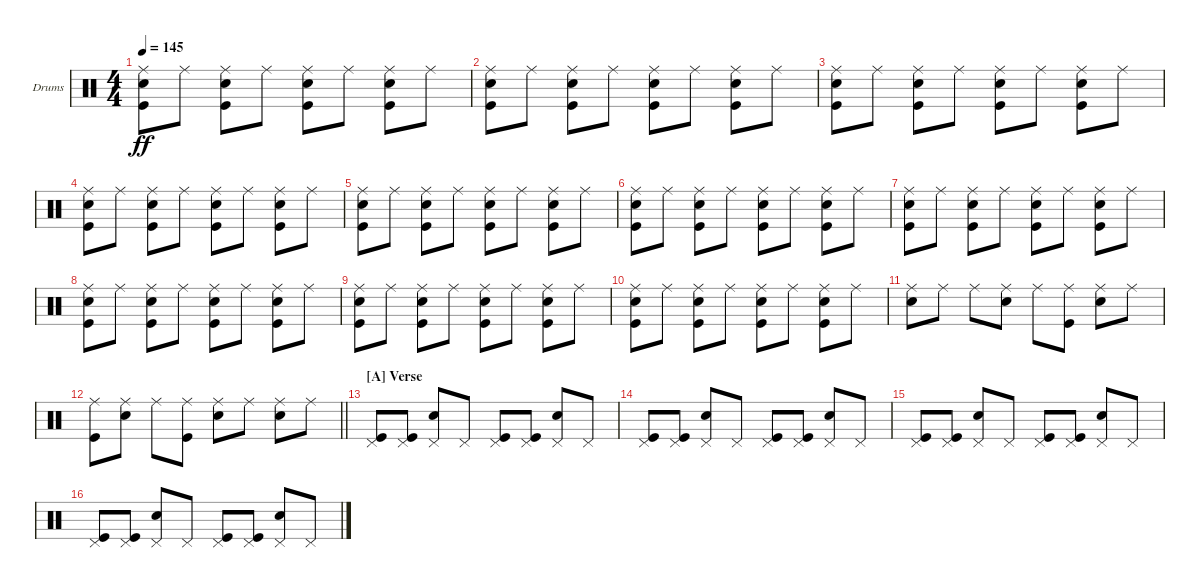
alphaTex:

\bracketExtendMode groupsimilarinstruments
\firstSystemTrackNameOrientation horizontal
\otherSystemsTrackNameOrientation horizontal
\track ("Fabrizio Moretti" "Drums") {instrument percussion}
\staff {score}
\articulation defaults
\ts (4 4)
\tempo 145
\clef neutral
\ks c
("Ride (middle)" "Snare (hit) 2" "Kick (hit)").8{dy ff} "Ride (middle)".8 ("Ride (middle)" "Snare (hit) 2" "Kick (hit)").8 "Ride (middle)".8 ("Ride (middle)" "Snare (hit) 2" "Kick (hit)").8 "Ride (middle)".8 ("Ride (middle)" "Snare (hit) 2" "Kick (hit)").8 "Ride (middle)".8 |
("Ride (middle)" "Snare (hit) 2" "Kick (hit)").8 "Ride (middle)".8 ("Ride (middle)" "Snare (hit) 2" "Kick (hit)").8 "Ride (middle)".8 ("Ride (middle)" "Snare (hit) 2" "Kick (hit)").8 "Ride (middle)".8 ("Ride (middle)" "Snare (hit) 2" "Kick (hit)").8 "Ride (middle)".8 |
("Ride (middle)" "Snare (hit) 2" "Kick (hit)").8 "Ride (middle)".8 ("Ride (middle)" "Snare (hit) 2" "Kick (hit)").8 "Ride (middle)".8 ("Ride (middle)" "Snare (hit) 2" "Kick (hit)").8 "Ride (middle)".8 ("Ride (middle)" "Snare (hit) 2" "Kick (hit)").8 "Ride (middle)".8 |
("Ride (middle)" "Snare (hit) 2" "Kick (hit)").8 "Ride (middle)".8 ("Ride (middle)" "Snare (hit) 2" "Kick (hit)").8 "Ride (middle)".8 ("Ride (middle)" "Snare (hit) 2" "Kick (hit)").8 "Ride (middle)".8 ("Ride (middle)" "Snare (hit) 2" "Kick (hit)").8 "Ride (middle)".8 |
("Ride (middle)" "Snare (hit) 2" "Kick (hit)").8 "Ride (middle)".8 ("Ride (middle)" "Snare (hit) 2" "Kick (hit)").8 "Ride (middle)".8 ("Ride (middle)" "Snare (hit) 2" "Kick (hit)").8 "Ride (middle)".8 ("Ride (middle)" "Snare (hit) 2" "Kick (hit)").8 "Ride (middle)".8 |
("Ride (middle)" "Snare (hit) 2" "Kick (hit)").8 "Ride (middle)".8 ("Ride (middle)" "Snare (hit) 2" "Kick (hit)").8 "Ride (middle)".8 ("Ride (middle)" "Snare (hit) 2" "Kick (hit)").8 "Ride (middle)".8 ("Ride (middle)" "Snare (hit) 2" "Kick (hit)").8 "Ride (middle)".8 |
("Ride (middle)" "Snare (hit) 2" "Kick (hit)").8 "Ride (middle)".8 ("Ride (middle)" "Snare (hit) 2" "Kick (hit)").8 "Ride (middle)".8 ("Ride (middle)" "Snare (hit) 2" "Kick (hit)").8 "Ride (middle)".8 ("Ride (middle)" "Snare (hit) 2" "Kick (hit)").8 "Ride (middle)".8 |
("Ride (middle)" "Snare (hit) 2" "Kick (hit)").8 "Ride (middle)".8 ("Ride (middle)" "Snare (hit) 2" "Kick (hit)").8 "Ride (middle)".8 ("Ride (middle)" "Snare (hit) 2" "Kick (hit)").8 "Ride (middle)".8 ("Ride (middle)" "Snare (hit) 2" "Kick (hit)").8 "Ride (middle)".8 |
("Ride (middle)" "Snare (hit) 2" "Kick (hit)").8 "Ride (middle)".8 ("Ride (middle)" "Snare (hit) 2" "Kick (hit)").8 "Ride (middle)".8 ("Ride (middle)" "Snare (hit) 2" "Kick (hit)").8 "Ride (middle)".8 ("Ride (middle)" "Snare (hit) 2" "Kick (hit)").8 "Ride (middle)".8 |
("Ride (middle)" "Snare (hit) 2" "Kick (hit)").8 "Ride (middle)".8 ("Ride (middle)" "Snare (hit) 2" "Kick (hit)").8 "Ride (middle)".8 ("Ride (middle)" "Snare (hit) 2" "Kick (hit)").8 "Ride (middle)".8 ("Ride (middle)" "Snare (hit) 2" "Kick (hit)").8 "Ride (middle)".8 |
("Ride (middle)" "Snare (hit) 2").8 "Ride (middle)".8 "Ride (middle)".8 ("Ride (middle)" "Snare (hit) 2").8 "Ride (middle)".8 ("Ride (middle)" "Kick (hit)").8 ("Ride (middle)" "Snare (hit) 2").8 "Ride (middle)".8 |
\barLineRight lightlight
("Ride (middle)" "Kick (hit)").8 ("Ride (middle)" "Snare (hit) 2").8 "Ride (middle)".8 ("Ride (middle)" "Kick (hit)").8 ("Ride (middle)" "Snare (hit) 2").8 "Ride (middle)".8 ("Ride (middle)" "Snare (hit) 2").8 "Ride (middle)".8 |
\section ("A" "Verse")
("Pedal Hi-Hat (hit)" "Kick (hit)").8 ("Pedal Hi-Hat (hit)" "Kick (hit)").8 ("Pedal Hi-Hat (hit)" "Snare (hit) 2").8 "Pedal Hi-Hat (hit)".8 ("Pedal Hi-Hat (hit)" "Kick (hit)").8 ("Pedal Hi-Hat (hit)" "Kick (hit)").8 ("Pedal Hi-Hat (hit)" "Snare (hit) 2").8 "Pedal Hi-Hat (hit)".8 |
("Pedal Hi-Hat (hit)" "Kick (hit)").8 ("Pedal Hi-Hat (hit)" "Kick (hit)").8 ("Pedal Hi-Hat (hit)" "Snare (hit) 2").8 "Pedal Hi-Hat (hit)".8 ("Pedal Hi-Hat (hit)" "Kick (hit)").8 ("Pedal Hi-Hat (hit)" "Kick (hit)").8 ("Pedal Hi-Hat (hit)" "Snare (hit) 2").8 "Pedal Hi-Hat (hit)".8 |
("Pedal Hi-Hat (hit)" "Kick (hit)").8 ("Pedal Hi-Hat (hit)" "Kick (hit)").8 ("Pedal Hi-Hat (hit)" "Snare (hit) 2").8 "Pedal Hi-Hat (hit)".8 ("Pedal Hi-Hat (hit)" "Kick (hit)").8 ("Pedal Hi-Hat (hit)" "Kick (hit)").8 ("Pedal Hi-Hat (hit)" "Snare (hit) 2").8 "Pedal Hi-Hat (hit)".8 |
("Pedal Hi-Hat (hit)" "Kick (hit)").8 ("Pedal Hi-Hat (hit)" "Kick (hit)").8 ("Pedal Hi-Hat (hit)" "Snare (hit) 2").8 "Pedal Hi-Hat (hit)".8 ("Pedal Hi-Hat (hit)" "Kick (hit)").8 ("Pedal Hi-Hat (hit)" "Kick (hit)").8 ("Pedal Hi-Hat (hit)" "Snare (hit) 2").8 "Pedal Hi-Hat (hit)".8
